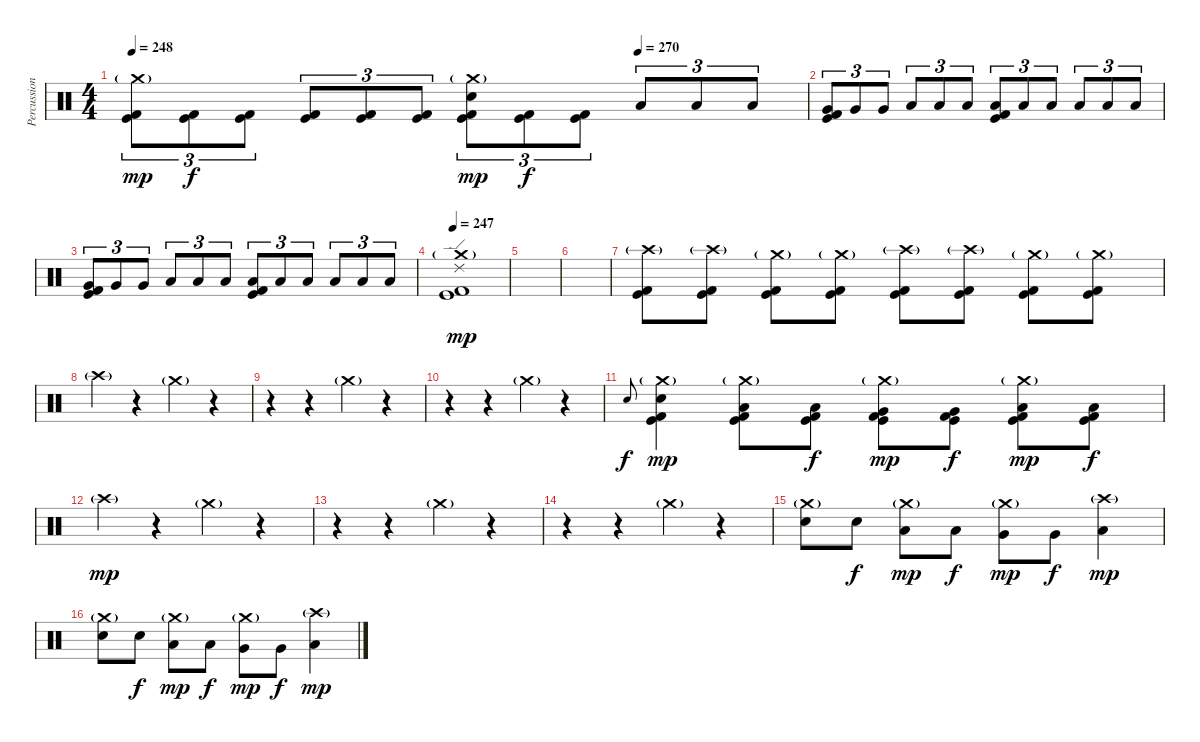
\track ("Percussion" "Percussion") {instrument percussion}
\staff {score}
\articulation defaults
\ts (4 4)
\tempo 248
\tempo (270 0.75)
\clef neutral
\ks c
("Crash medium (hit)"{g} "Kick (hit)" "Kick (hit) 2").8{tu (3 2) dy mp} ("Kick (hit)" "Kick (hit) 2").8{tu (3 2) dy f} ("Kick (hit)" "Kick (hit) 2").8{tu (3 2)} ("Kick (hit)" "Kick (hit) 2").8{tu (3 2)} ("Kick (hit)" "Kick (hit) 2").8{tu (3 2)} ("Kick (hit)" "Kick (hit) 2").8{tu (3 2)} ("Crash medium (hit)"{g} "Electric Snare (hit)" "Kick (hit)" "Kick (hit) 2").8{tu (3 2) dy mp} ("Kick (hit)" "Kick (hit) 2").8{tu (3 2) dy f} ("Kick (hit)" "Kick (hit) 2").8{tu (3 2)} "Low Tom (hit)".8{tu (3 2)} "Low Tom (hit)".8{tu (3 2)} "Low Tom (hit)".8{tu (3 2)} |
("Very Low Tom (hit)" "Kick (hit)" "Kick (hit) 2").8{tu (3 2)} "Very Low Tom (hit)".8{tu (3 2)} "Very Low Tom (hit)".8{tu (3 2)} "Low Tom (hit)".8{tu (3 2)} "Low Tom (hit)".8{tu (3 2)} "Low Tom (hit)".8{tu (3 2)} ("Low Floor Tom (hit)" "Kick (hit)" "Kick (hit) 2").8{tu (3 2)} "Low Floor Tom (hit)".8{tu (3 2)} "Low Floor Tom (hit)".8{tu (3 2)} "Low Tom (hit)".8{tu (3 2)} "Low Tom (hit)".8{tu (3 2)} "Low Tom (hit)".8{tu (3 2)} |
("Very Low Tom (hit)" "Kick (hit)" "Kick (hit) 2").8{tu (3 2)} "Very Low Tom (hit)".8{tu (3 2)} "Very Low Tom (hit)".8{tu (3 2)} "Low Tom (hit)".8{tu (3 2)} "Low Tom (hit)".8{tu (3 2)} "Low Tom (hit)".8{tu (3 2)} ("Low Floor Tom (hit)" "Kick (hit)" "Kick (hit) 2").8{tu (3 2)} "Low Floor Tom (hit)".8{tu (3 2)} "Low Floor Tom (hit)".8{tu (3 2)} "Low Tom (hit)".8{tu (3 2)} "Low Tom (hit)".8{tu (3 2)} "Low Tom (hit)".8{tu (3 2)} |
\tempo 247
("Crash medium (hit)"{g} "Ride (edge) 2" "Kick (hit)" "Kick (hit) 2").1{dy mp} |
|
|
("Crash high (hit)"{g} "Kick (hit)" "Kick (hit) 2").8 ("Crash high (hit)"{g} "Kick (hit)" "Kick (hit) 2").8 ("Crash medium (hit)"{g} "Kick (hit)" "Kick (hit) 2").8 ("Crash medium (hit)"{g} "Kick (hit)" "Kick (hit) 2").8 ("Crash high (hit)"{g} "Kick (hit)" "Kick (hit) 2").8 ("Crash high (hit)"{g} "Kick (hit)" "Kick (hit) 2").8 ("Crash medium (hit)"{g} "Kick (hit)" "Kick (hit) 2").8 ("Crash medium (hit)"{g} "Kick (hit)" "Kick (hit) 2").8 |
"Crash high (hit)"{g}.4 r.4 "Crash medium (hit)"{g}.4 r.4 |
r.4 r.4 "Crash medium (hit)"{g}.4 r.4 |
r.4 r.4 "Crash medium (hit)"{g}.4 r.4 |
"Electric Snare (hit)".8{gr onbeat dy f} ("Crash medium (hit)"{g} "Electric Snare (hit)" "Kick (hit)" "Kick (hit) 2").4{dy mp} ("Crash medium (hit)"{g} "Low Tom (hit)" "Kick (hit)" "Kick (hit) 2").8 ("Low Tom (hit)" "Kick (hit)" "Kick (hit) 2").8{dy f} ("Crash medium (hit)"{g} "Very Low Tom (hit)" "Kick (hit)" "Kick (hit) 2").8{dy mp} ("Very Low Tom (hit)" "Kick (hit)" "Kick (hit) 2").8{dy f} ("Crash medium (hit)"{g} "Low Floor Tom (hit)" "Kick (hit)" "Kick (hit) 2").8{dy mp} ("Low Floor Tom (hit)" "Kick (hit)" "Kick (hit) 2").8{dy f} |
"Crash high (hit)"{g}.4{dy mp} r.4 "Crash medium (hit)"{g}.4 r.4 |
r.4 r.4 "Crash medium (hit)"{g}.4 r.4 |
r.4 r.4 "Crash medium (hit)"{g}.4 r.4 |
("Crash medium (hit)"{g} "Electric Snare (hit)").8 "Electric Snare (hit)".8{dy f} ("Crash medium (hit)"{g} "Low Tom (hit)").8{dy mp} "Low Tom (hit)".8{dy f} ("Crash medium (hit)"{g} "Very Low Tom (hit)").8{dy mp} "Very Low Tom (hit)".8{dy f} ("Crash high (hit)"{g} "Low Floor Tom (hit)").4{dy mp} |
("Crash medium (hit)"{g} "Electric Snare (hit)").8 "Electric Snare (hit)".8{dy f} ("Crash medium (hit)"{g} "Low Tom (hit)").8{dy mp} "Low Tom (hit)".8{dy f} ("Crash medium (hit)"{g} "Very Low Tom (hit)").8{dy mp} "Very Low Tom (hit)".8{dy f} ("Crash high (hit)"{g} "Low Floor Tom (hit)").4{dy mp}
